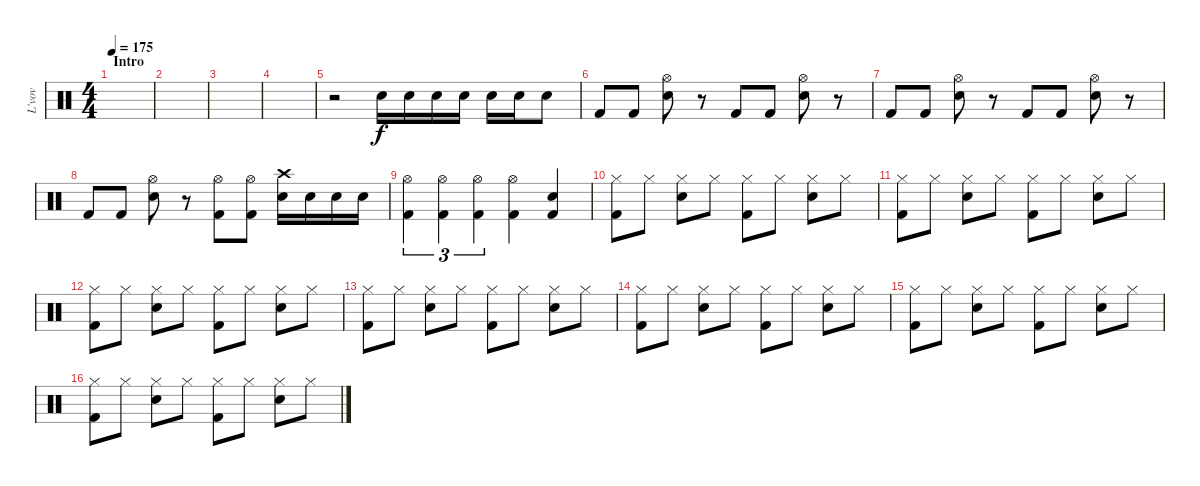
\track ("L'vov" "L'vov") {instrument percussion}
\staff {score}
\articulation defaults
\ts (4 4)
\section ("" "Intro")
\tempo 175
\clef neutral
\ks c
|
|
|
|
r.2 "Snare (hit) 2".16 "Snare (hit) 2".16 "Snare (hit) 2".16 "Snare (hit) 2".16 "Snare (hit) 2".16 "Snare (hit) 2".16 "Snare (hit) 2".8 |
"Kick (hit) 2".8 "Kick (hit) 2".8 ("Hi-Hat (open)" "Snare (hit) 2").8 r.8 "Kick (hit) 2".8 "Kick (hit) 2".8 ("Hi-Hat (open)" "Snare (hit) 2").8 r.8 |
"Kick (hit) 2".8 "Kick (hit) 2".8 ("Hi-Hat (open)" "Snare (hit) 2").8 r.8 "Kick (hit) 2".8 "Kick (hit) 2".8 ("Hi-Hat (open)" "Snare (hit) 2").8 r.8 |
"Kick (hit) 2".8 "Kick (hit) 2".8 ("Hi-Hat (open)" "Snare (hit) 2").8 r.8 ("Hi-Hat (open)" "Kick (hit) 2").8 ("Hi-Hat (open)" "Kick (hit) 2").8 ("Crash high (hit)" "Snare (hit) 2").16 "Snare (hit) 2".16 "Snare (hit) 2".16 "Snare (hit) 2".16 |
("Kick (hit) 2" "Hi-Hat (open)").4{tu (3 2)} ("Kick (hit) 2" "Hi-Hat (open)").4{tu (3 2)} ("Kick (hit) 2" "Hi-Hat (open)").4{tu (3 2)} ("Kick (hit) 2" "Hi-Hat (open)").4 ("Snare (hit) 2" "Kick (hit) 2").4 |
("Hi-Hat (closed)" "Kick (hit) 2").8 "Hi-Hat (closed)".8 ("Hi-Hat (closed)" "Snare (hit) 2").8 "Hi-Hat (closed)".8 ("Hi-Hat (closed)" "Kick (hit) 2").8 "Hi-Hat (closed)".8 ("Hi-Hat (closed)" "Snare (hit) 2").8 "Hi-Hat (closed)".8 |
("Hi-Hat (closed)" "Kick (hit) 2").8 "Hi-Hat (closed)".8 ("Hi-Hat (closed)" "Snare (hit) 2").8 "Hi-Hat (closed)".8 ("Hi-Hat (closed)" "Kick (hit) 2").8 "Hi-Hat (closed)".8 ("Hi-Hat (closed)" "Snare (hit) 2").8 "Hi-Hat (closed)".8 |
("Hi-Hat (closed)" "Kick (hit) 2").8 "Hi-Hat (closed)".8 ("Hi-Hat (closed)" "Snare (hit) 2").8 "Hi-Hat (closed)".8 ("Hi-Hat (closed)" "Kick (hit) 2").8 "Hi-Hat (closed)".8 ("Hi-Hat (closed)" "Snare (hit) 2").8 "Hi-Hat (closed)".8 |
("Hi-Hat (closed)" "Kick (hit) 2").8 "Hi-Hat (closed)".8 ("Hi-Hat (closed)" "Snare (hit) 2").8 "Hi-Hat (closed)".8 ("Hi-Hat (closed)" "Kick (hit) 2").8 "Hi-Hat (closed)".8 ("Hi-Hat (closed)" "Snare (hit) 2").8 "Hi-Hat (closed)".8 |
("Hi-Hat (closed)" "Kick (hit) 2").8 "Hi-Hat (closed)".8 ("Hi-Hat (closed)" "Snare (hit) 2").8 "Hi-Hat (closed)".8 ("Hi-Hat (closed)" "Kick (hit) 2").8 "Hi-Hat (closed)".8 ("Hi-Hat (closed)" "Snare (hit) 2").8 "Hi-Hat (closed)".8 |
("Hi-Hat (closed)" "Kick (hit) 2").8 "Hi-Hat (closed)".8 ("Hi-Hat (closed)" "Snare (hit) 2").8 "Hi-Hat (closed)".8 ("Hi-Hat (closed)" "Kick (hit) 2").8 "Hi-Hat (closed)".8 ("Hi-Hat (closed)" "Snare (hit) 2").8 "Hi-Hat (closed)".8 |
("Hi-Hat (closed)" "Kick (hit) 2").8 "Hi-Hat (closed)".8 ("Hi-Hat (closed)" "Snare (hit) 2").8 "Hi-Hat (closed)".8 ("Hi-Hat (closed)" "Kick (hit) 2").8 "Hi-Hat (closed)".8 ("Hi-Hat (closed)" "Snare (hit) 2").8 "Hi-Hat (closed)".8
